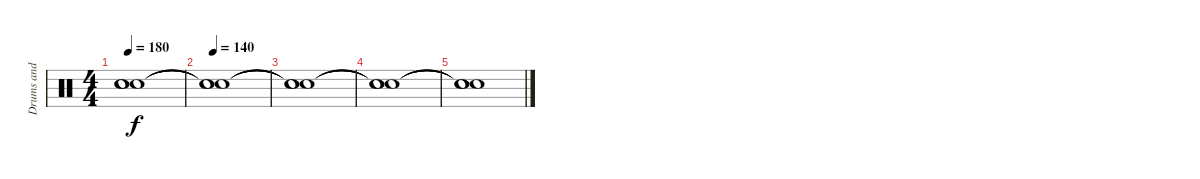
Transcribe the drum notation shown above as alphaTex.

\track ("Drums and Percussion" "Drums and ") {instrument percussion}
\staff {score}
\articulation defaults
\ts (4 4)
\tempo 180
\clef neutral
\ks c
("Snare (hit)"{t} "Snare (hit)"{t} "Snare (hit)"{t}).1{dy f} |
\tempo 140
("Snare (hit)"{t} "Snare (hit)"{t} "Snare (hit)"{t}).1{volume 0} |
("Snare (hit)"{t} "Snare (hit)"{t} "Snare (hit)"{t}).1 |
("Snare (hit)"{t} "Snare (hit)"{t} "Snare (hit)"{t}).1 |
("Snare (hit)"{t} "Snare (hit)"{t} "Snare (hit)"{t}).1
